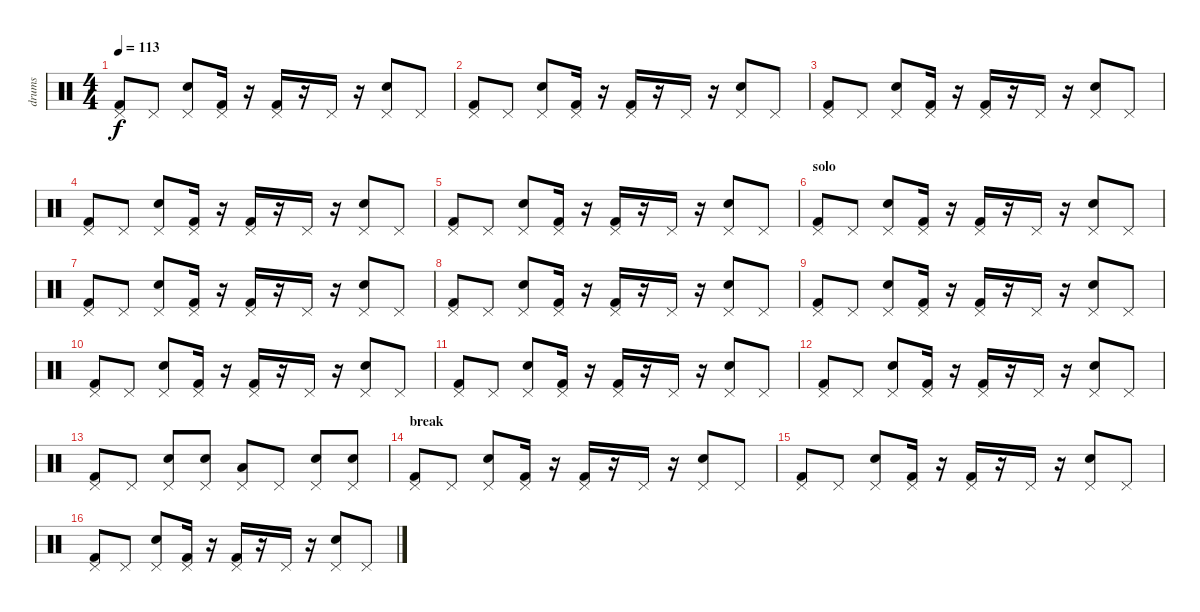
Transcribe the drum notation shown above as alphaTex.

\track ("drums" "drums") {instrument percussion}
\staff {score}
\articulation defaults
\ts (4 4)
\tempo 113
\clef neutral
\ks c
("Kick (hit) 2" "Pedal Hi-Hat (hit)").8{dy f} "Pedal Hi-Hat (hit)".8 ("Snare (hit) 2" "Pedal Hi-Hat (hit)").8 ("Kick (hit) 2" "Pedal Hi-Hat (hit)").16 r.16 ("Kick (hit) 2" "Pedal Hi-Hat (hit)").16 r.16 "Pedal Hi-Hat (hit)".16 r.16 ("Snare (hit) 2" "Pedal Hi-Hat (hit)").8 "Pedal Hi-Hat (hit)".8 |
("Kick (hit) 2" "Pedal Hi-Hat (hit)").8 "Pedal Hi-Hat (hit)".8 ("Snare (hit) 2" "Pedal Hi-Hat (hit)").8 ("Kick (hit) 2" "Pedal Hi-Hat (hit)").16 r.16 ("Kick (hit) 2" "Pedal Hi-Hat (hit)").16 r.16 "Pedal Hi-Hat (hit)".16 r.16 ("Snare (hit) 2" "Pedal Hi-Hat (hit)").8 "Pedal Hi-Hat (hit)".8 |
("Kick (hit) 2" "Pedal Hi-Hat (hit)").8 "Pedal Hi-Hat (hit)".8 ("Snare (hit) 2" "Pedal Hi-Hat (hit)").8 ("Kick (hit) 2" "Pedal Hi-Hat (hit)").16 r.16 ("Kick (hit) 2" "Pedal Hi-Hat (hit)").16 r.16 "Pedal Hi-Hat (hit)".16 r.16 ("Snare (hit) 2" "Pedal Hi-Hat (hit)").8 "Pedal Hi-Hat (hit)".8 |
("Kick (hit) 2" "Pedal Hi-Hat (hit)").8 "Pedal Hi-Hat (hit)".8 ("Snare (hit) 2" "Pedal Hi-Hat (hit)").8 ("Kick (hit) 2" "Pedal Hi-Hat (hit)").16 r.16 ("Kick (hit) 2" "Pedal Hi-Hat (hit)").16 r.16 "Pedal Hi-Hat (hit)".16 r.16 ("Snare (hit) 2" "Pedal Hi-Hat (hit)").8 "Pedal Hi-Hat (hit)".8 |
("Kick (hit) 2" "Pedal Hi-Hat (hit)").8 "Pedal Hi-Hat (hit)".8 ("Snare (hit) 2" "Pedal Hi-Hat (hit)").8 ("Kick (hit) 2" "Pedal Hi-Hat (hit)").16 r.16 ("Kick (hit) 2" "Pedal Hi-Hat (hit)").16 r.16 "Pedal Hi-Hat (hit)".16 r.16 ("Snare (hit) 2" "Pedal Hi-Hat (hit)").8 "Pedal Hi-Hat (hit)".8 |
\section ("" "solo")
("Kick (hit) 2" "Pedal Hi-Hat (hit)").8 "Pedal Hi-Hat (hit)".8 ("Snare (hit) 2" "Pedal Hi-Hat (hit)").8 ("Kick (hit) 2" "Pedal Hi-Hat (hit)").16 r.16 ("Kick (hit) 2" "Pedal Hi-Hat (hit)").16 r.16 "Pedal Hi-Hat (hit)".16 r.16 ("Snare (hit) 2" "Pedal Hi-Hat (hit)").8 "Pedal Hi-Hat (hit)".8 |
("Kick (hit) 2" "Pedal Hi-Hat (hit)").8 "Pedal Hi-Hat (hit)".8 ("Snare (hit) 2" "Pedal Hi-Hat (hit)").8 ("Kick (hit) 2" "Pedal Hi-Hat (hit)").16 r.16 ("Kick (hit) 2" "Pedal Hi-Hat (hit)").16 r.16 "Pedal Hi-Hat (hit)".16 r.16 ("Snare (hit) 2" "Pedal Hi-Hat (hit)").8 "Pedal Hi-Hat (hit)".8 |
("Kick (hit) 2" "Pedal Hi-Hat (hit)").8 "Pedal Hi-Hat (hit)".8 ("Snare (hit) 2" "Pedal Hi-Hat (hit)").8 ("Kick (hit) 2" "Pedal Hi-Hat (hit)").16 r.16 ("Kick (hit) 2" "Pedal Hi-Hat (hit)").16 r.16 "Pedal Hi-Hat (hit)".16 r.16 ("Snare (hit) 2" "Pedal Hi-Hat (hit)").8 "Pedal Hi-Hat (hit)".8 |
("Kick (hit) 2" "Pedal Hi-Hat (hit)").8 "Pedal Hi-Hat (hit)".8 ("Snare (hit) 2" "Pedal Hi-Hat (hit)").8 ("Kick (hit) 2" "Pedal Hi-Hat (hit)").16 r.16 ("Kick (hit) 2" "Pedal Hi-Hat (hit)").16 r.16 "Pedal Hi-Hat (hit)".16 r.16 ("Snare (hit) 2" "Pedal Hi-Hat (hit)").8 "Pedal Hi-Hat (hit)".8 |
("Kick (hit) 2" "Pedal Hi-Hat (hit)").8 "Pedal Hi-Hat (hit)".8 ("Snare (hit) 2" "Pedal Hi-Hat (hit)").8 ("Kick (hit) 2" "Pedal Hi-Hat (hit)").16 r.16 ("Kick (hit) 2" "Pedal Hi-Hat (hit)").16 r.16 "Pedal Hi-Hat (hit)".16 r.16 ("Snare (hit) 2" "Pedal Hi-Hat (hit)").8 "Pedal Hi-Hat (hit)".8 |
("Kick (hit) 2" "Pedal Hi-Hat (hit)").8 "Pedal Hi-Hat (hit)".8 ("Snare (hit) 2" "Pedal Hi-Hat (hit)").8 ("Kick (hit) 2" "Pedal Hi-Hat (hit)").16 r.16 ("Kick (hit) 2" "Pedal Hi-Hat (hit)").16 r.16 "Pedal Hi-Hat (hit)".16 r.16 ("Snare (hit) 2" "Pedal Hi-Hat (hit)").8 "Pedal Hi-Hat (hit)".8 |
("Kick (hit) 2" "Pedal Hi-Hat (hit)").8 "Pedal Hi-Hat (hit)".8 ("Snare (hit) 2" "Pedal Hi-Hat (hit)").8 ("Kick (hit) 2" "Pedal Hi-Hat (hit)").16 r.16 ("Kick (hit) 2" "Pedal Hi-Hat (hit)").16 r.16 "Pedal Hi-Hat (hit)".16 r.16 ("Snare (hit) 2" "Pedal Hi-Hat (hit)").8 "Pedal Hi-Hat (hit)".8 |
("Kick (hit) 2" "Pedal Hi-Hat (hit)").8 "Pedal Hi-Hat (hit)".8 ("Snare (hit) 2"{tr (38 16)} "Pedal Hi-Hat (hit)").8 ("Snare (hit) 2" "Pedal Hi-Hat (hit)").8 ("Low Tom (hit)" "Pedal Hi-Hat (hit)").8 "Pedal Hi-Hat (hit)".8 ("Snare (hit) 2"{tr (38 16)} "Pedal Hi-Hat (hit)").8 ("Snare (hit) 2" "Pedal Hi-Hat (hit)").8 |
\section ("" "break")
("Kick (hit) 2" "Pedal Hi-Hat (hit)").8 "Pedal Hi-Hat (hit)".8 ("Snare (hit) 2" "Pedal Hi-Hat (hit)").8 ("Kick (hit) 2" "Pedal Hi-Hat (hit)").16 r.16 ("Kick (hit) 2" "Pedal Hi-Hat (hit)").16 r.16 "Pedal Hi-Hat (hit)".16 r.16 ("Snare (hit) 2" "Pedal Hi-Hat (hit)").8 "Pedal Hi-Hat (hit)".8 |
("Kick (hit) 2" "Pedal Hi-Hat (hit)").8 "Pedal Hi-Hat (hit)".8 ("Snare (hit) 2" "Pedal Hi-Hat (hit)").8 ("Kick (hit) 2" "Pedal Hi-Hat (hit)").16 r.16 ("Kick (hit) 2" "Pedal Hi-Hat (hit)").16 r.16 "Pedal Hi-Hat (hit)".16 r.16 ("Snare (hit) 2" "Pedal Hi-Hat (hit)").8 "Pedal Hi-Hat (hit)".8 |
("Kick (hit) 2" "Pedal Hi-Hat (hit)").8 "Pedal Hi-Hat (hit)".8 ("Snare (hit) 2" "Pedal Hi-Hat (hit)").8 ("Kick (hit) 2" "Pedal Hi-Hat (hit)").16 r.16 ("Kick (hit) 2" "Pedal Hi-Hat (hit)").16 r.16 "Pedal Hi-Hat (hit)".16 r.16 ("Snare (hit) 2" "Pedal Hi-Hat (hit)").8 "Pedal Hi-Hat (hit)".8
